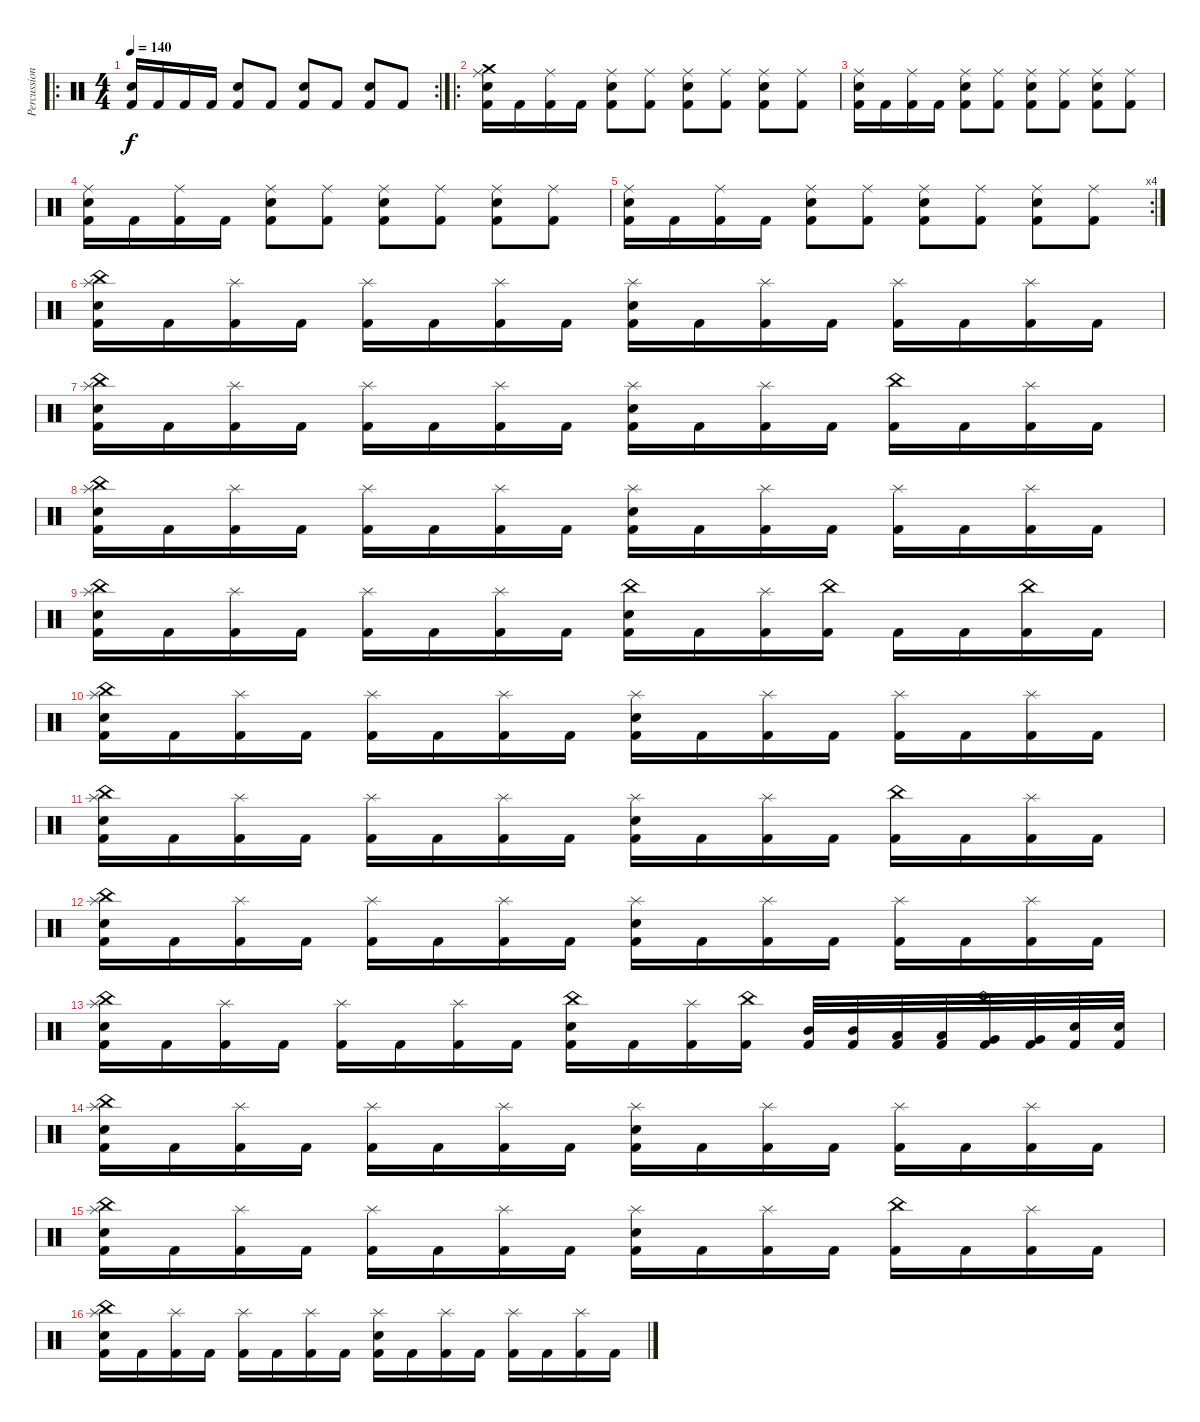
\track ("Percussion" "Percussion") {instrument percussion}
\staff {score}
\articulation defaults
\ro
\rc 2
\ts (4 4)
\tempo 140
\clef neutral
\ks c
("Electric Snare (hit)" "Kick (hit) 2").16{dy f} "Kick (hit) 2".16 "Kick (hit) 2".16 "Kick (hit) 2".16 ("Electric Snare (hit)" "Kick (hit) 2").8 "Kick (hit) 2".8 ("Electric Snare (hit)" "Kick (hit) 2").8 "Kick (hit) 2".8 ("Electric Snare (hit)" "Kick (hit) 2").8 "Kick (hit) 2".8 |
\ro
("Crash medium (hit)" "Ride (middle)" "Electric Snare (hit)" "Kick (hit) 2").16 "Kick (hit) 2".16 ("Ride (middle)" "Kick (hit) 2").16 "Kick (hit) 2".16 ("Ride (middle)" "Electric Snare (hit)" "Kick (hit) 2").8 ("Ride (middle)" "Kick (hit) 2").8 ("Ride (middle)" "Electric Snare (hit)" "Kick (hit) 2").8 ("Ride (middle)" "Kick (hit) 2").8 ("Ride (middle)" "Electric Snare (hit)" "Kick (hit) 2").8 ("Ride (middle)" "Kick (hit) 2").8 |
("Ride (middle)" "Electric Snare (hit)" "Kick (hit) 2").16 "Kick (hit) 2".16 ("Ride (middle)" "Kick (hit) 2").16 "Kick (hit) 2".16 ("Ride (middle)" "Electric Snare (hit)" "Kick (hit) 2").8 ("Ride (middle)" "Kick (hit) 2").8 ("Ride (middle)" "Electric Snare (hit)" "Kick (hit) 2").8 ("Ride (middle)" "Kick (hit) 2").8 ("Ride (middle)" "Electric Snare (hit)" "Kick (hit) 2").8 ("Ride (middle)" "Kick (hit) 2").8 |
("Ride (middle)" "Electric Snare (hit)" "Kick (hit) 2").16 "Kick (hit) 2".16 ("Ride (middle)" "Kick (hit) 2").16 "Kick (hit) 2".16 ("Ride (middle)" "Electric Snare (hit)" "Kick (hit) 2").8 ("Ride (middle)" "Kick (hit) 2").8 ("Ride (middle)" "Electric Snare (hit)" "Kick (hit) 2").8 ("Ride (middle)" "Kick (hit) 2").8 ("Ride (middle)" "Electric Snare (hit)" "Kick (hit) 2").8 ("Ride (middle)" "Kick (hit) 2").8 |
\rc 4
("Ride (middle)" "Electric Snare (hit)" "Kick (hit) 2").16 "Kick (hit) 2".16 ("Ride (middle)" "Kick (hit) 2").16 "Kick (hit) 2".16 ("Ride (middle)" "Electric Snare (hit)" "Kick (hit) 2").8 ("Ride (middle)" "Kick (hit) 2").8 ("Ride (middle)" "Electric Snare (hit)" "Kick (hit) 2").8 ("Ride (middle)" "Kick (hit) 2").8 ("Ride (middle)" "Electric Snare (hit)" "Kick (hit) 2").8 ("Ride (middle)" "Kick (hit) 2").8 |
("China (hit)" "Splash (hit)" "Electric Snare (hit)" "Kick (hit) 2").16 "Kick (hit) 2".16 ("Splash (hit)" "Kick (hit) 2").16 "Kick (hit) 2".16 ("Splash (hit)" "Kick (hit) 2").16 "Kick (hit) 2".16 ("Splash (hit)" "Kick (hit) 2").16 "Kick (hit) 2".16 ("Splash (hit)" "Electric Snare (hit)" "Kick (hit) 2").16 "Kick (hit) 2".16 ("Splash (hit)" "Kick (hit) 2").16 "Kick (hit) 2".16 ("Splash (hit)" "Kick (hit) 2").16 "Kick (hit) 2".16 ("Splash (hit)" "Kick (hit) 2").16 "Kick (hit) 2".16 |
("China (hit)" "Splash (hit)" "Electric Snare (hit)" "Kick (hit) 2").16 "Kick (hit) 2".16 ("Splash (hit)" "Kick (hit) 2").16 "Kick (hit) 2".16 ("Splash (hit)" "Kick (hit) 2").16 "Kick (hit) 2".16 ("Splash (hit)" "Kick (hit) 2").16 "Kick (hit) 2".16 ("Splash (hit)" "Electric Snare (hit)" "Kick (hit) 2").16 "Kick (hit) 2".16 ("Splash (hit)" "Kick (hit) 2").16 "Kick (hit) 2".16 ("China (hit)" "Kick (hit) 2").16 "Kick (hit) 2".16 ("Splash (hit)" "Kick (hit) 2").16 "Kick (hit) 2".16 |
("China (hit)" "Splash (hit)" "Electric Snare (hit)" "Kick (hit) 2").16 "Kick (hit) 2".16 ("Splash (hit)" "Kick (hit) 2").16 "Kick (hit) 2".16 ("Splash (hit)" "Kick (hit) 2").16 "Kick (hit) 2".16 ("Splash (hit)" "Kick (hit) 2").16 "Kick (hit) 2".16 ("Splash (hit)" "Electric Snare (hit)" "Kick (hit) 2").16 "Kick (hit) 2".16 ("Splash (hit)" "Kick (hit) 2").16 "Kick (hit) 2".16 ("Splash (hit)" "Kick (hit) 2").16 "Kick (hit) 2".16 ("Splash (hit)" "Kick (hit) 2").16 "Kick (hit) 2".16 |
("China (hit)" "Splash (hit)" "Electric Snare (hit)" "Kick (hit) 2").16 "Kick (hit) 2".16 ("Splash (hit)" "Kick (hit) 2").16 "Kick (hit) 2".16 ("Splash (hit)" "Kick (hit) 2").16 "Kick (hit) 2".16 ("Splash (hit)" "Kick (hit) 2").16 "Kick (hit) 2".16 ("China (hit)" "Electric Snare (hit)" "Kick (hit) 2").16 "Kick (hit) 2".16 ("Splash (hit)" "Kick (hit) 2").16 ("China (hit)" "Kick (hit) 2").16 "Kick (hit) 2".16 "Kick (hit) 2".16 ("China (hit)" "Kick (hit) 2").16 "Kick (hit) 2".16 |
("China (hit)" "Splash (hit)" "Electric Snare (hit)" "Kick (hit) 2").16 "Kick (hit) 2".16 ("Splash (hit)" "Kick (hit) 2").16 "Kick (hit) 2".16 ("Splash (hit)" "Kick (hit) 2").16 "Kick (hit) 2".16 ("Splash (hit)" "Kick (hit) 2").16 "Kick (hit) 2".16 ("Splash (hit)" "Electric Snare (hit)" "Kick (hit) 2").16 "Kick (hit) 2".16 ("Splash (hit)" "Kick (hit) 2").16 "Kick (hit) 2".16 ("Splash (hit)" "Kick (hit) 2").16 "Kick (hit) 2".16 ("Splash (hit)" "Kick (hit) 2").16 "Kick (hit) 2".16 |
("China (hit)" "Splash (hit)" "Electric Snare (hit)" "Kick (hit) 2").16 "Kick (hit) 2".16 ("Splash (hit)" "Kick (hit) 2").16 "Kick (hit) 2".16 ("Splash (hit)" "Kick (hit) 2").16 "Kick (hit) 2".16 ("Splash (hit)" "Kick (hit) 2").16 "Kick (hit) 2".16 ("Splash (hit)" "Electric Snare (hit)" "Kick (hit) 2").16 "Kick (hit) 2".16 ("Splash (hit)" "Kick (hit) 2").16 "Kick (hit) 2".16 ("China (hit)" "Kick (hit) 2").16 "Kick (hit) 2".16 ("Splash (hit)" "Kick (hit) 2").16 "Kick (hit) 2".16 |
("China (hit)" "Splash (hit)" "Electric Snare (hit)" "Kick (hit) 2").16 "Kick (hit) 2".16 ("Splash (hit)" "Kick (hit) 2").16 "Kick (hit) 2".16 ("Splash (hit)" "Kick (hit) 2").16 "Kick (hit) 2".16 ("Splash (hit)" "Kick (hit) 2").16 "Kick (hit) 2".16 ("Splash (hit)" "Electric Snare (hit)" "Kick (hit) 2").16 "Kick (hit) 2".16 ("Splash (hit)" "Kick (hit) 2").16 "Kick (hit) 2".16 ("Splash (hit)" "Kick (hit) 2").16 "Kick (hit) 2".16 ("Splash (hit)" "Kick (hit) 2").16 "Kick (hit) 2".16 |
("China (hit)" "Splash (hit)" "Electric Snare (hit)" "Kick (hit) 2").16 "Kick (hit) 2".16 ("Splash (hit)" "Kick (hit) 2").16 "Kick (hit) 2".16 ("Splash (hit)" "Kick (hit) 2").16 "Kick (hit) 2".16 ("Splash (hit)" "Kick (hit) 2").16 "Kick (hit) 2".16 ("China (hit)" "Electric Snare (hit)" "Kick (hit) 2").16 "Kick (hit) 2".16 ("Splash (hit)" "Kick (hit) 2").16 ("China (hit)" "Kick (hit) 2").16 ("Mid Tom (hit)" "Kick (hit) 2").32 ("Mid Tom (hit)" "Kick (hit) 2").32 ("Low Tom (hit)" "Kick (hit) 2").32 ("Low Tom (hit)" "Kick (hit) 2").32 ("China (hit)" "Very Low Tom (hit)" "Kick (hit) 2").32 ("Very Low Tom (hit)" "Kick (hit) 2").32 ("Electric Snare (hit)" "Kick (hit) 2").32 ("Electric Snare (hit)" "Kick (hit) 2").32 |
("China (hit)" "Splash (hit)" "Electric Snare (hit)" "Kick (hit) 2").16 "Kick (hit) 2".16 ("Splash (hit)" "Kick (hit) 2").16 "Kick (hit) 2".16 ("Splash (hit)" "Kick (hit) 2").16 "Kick (hit) 2".16 ("Splash (hit)" "Kick (hit) 2").16 "Kick (hit) 2".16 ("Splash (hit)" "Electric Snare (hit)" "Kick (hit) 2").16 "Kick (hit) 2".16 ("Splash (hit)" "Kick (hit) 2").16 "Kick (hit) 2".16 ("Splash (hit)" "Kick (hit) 2").16 "Kick (hit) 2".16 ("Splash (hit)" "Kick (hit) 2").16 "Kick (hit) 2".16 |
("China (hit)" "Splash (hit)" "Electric Snare (hit)" "Kick (hit) 2").16 "Kick (hit) 2".16 ("Splash (hit)" "Kick (hit) 2").16 "Kick (hit) 2".16 ("Splash (hit)" "Kick (hit) 2").16 "Kick (hit) 2".16 ("Splash (hit)" "Kick (hit) 2").16 "Kick (hit) 2".16 ("Splash (hit)" "Electric Snare (hit)" "Kick (hit) 2").16 "Kick (hit) 2".16 ("Splash (hit)" "Kick (hit) 2").16 "Kick (hit) 2".16 ("China (hit)" "Kick (hit) 2").16 "Kick (hit) 2".16 ("Splash (hit)" "Kick (hit) 2").16 "Kick (hit) 2".16 |
("China (hit)" "Splash (hit)" "Electric Snare (hit)" "Kick (hit) 2").16 "Kick (hit) 2".16 ("Splash (hit)" "Kick (hit) 2").16 "Kick (hit) 2".16 ("Splash (hit)" "Kick (hit) 2").16 "Kick (hit) 2".16 ("Splash (hit)" "Kick (hit) 2").16 "Kick (hit) 2".16 ("Splash (hit)" "Electric Snare (hit)" "Kick (hit) 2").16 "Kick (hit) 2".16 ("Splash (hit)" "Kick (hit) 2").16 "Kick (hit) 2".16 ("Splash (hit)" "Kick (hit) 2").16 "Kick (hit) 2".16 ("Splash (hit)" "Kick (hit) 2").16 "Kick (hit) 2".16
